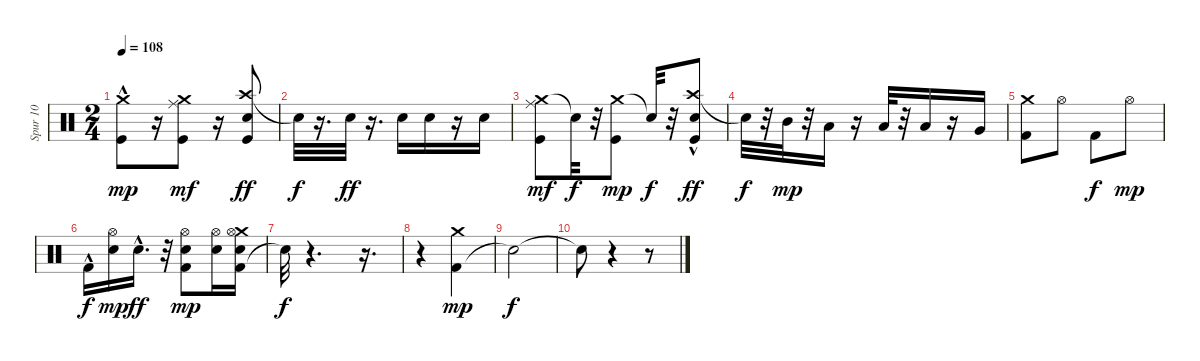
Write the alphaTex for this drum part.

\track ("Spur 10" "Spur 10") {instrument percussion}
\staff {score}
\articulation defaults
\ts (2 4)
\tempo 108
\clef neutral
\ks c
("Crash medium (hit)"{hac} "Kick (hit)").8{dy mp} r.16 ("Crash medium (hit)" "Ride (middle)" "Kick (hit)").8{dy mf} r.16 ("Crash high (hit)" "Electric Snare (hit)" "Kick (hit)").8{dy ff} |
"Snare (hit)"{t}.32{dy f} r.16{d} "Electric Snare (hit)".32{dy ff} r.16{d} "Electric Snare (hit)".16 "Electric Snare (hit)".16 r.16 "Electric Snare (hit)".16 |
("Crash medium (hit)" "Ride (middle)" "Kick (hit)").8{dy mf} "Snare (hit)"{t}.32{dy f} r.32 ("Crash medium (hit)" "Kick (hit)").8{dy mp} "Snare (hit)"{t}.32{dy f} r.32 ("Crash high (hit)" "Kick (hit)"{hac} "Electric Snare (hit)"{hac}).8{dy ff} |
"Snare (hit)"{t}.32{dy f} r.32 "Mid Tom (hit)".32{dy mp} r.32 "Low Tom (hit)".16 r.16 "Low Tom (hit)".32 r.32 "Low Tom (hit)".16 r.16 "Very Low Tom (hit)".16 |
("Crash medium (hit)" "Kick (hit) 2").8 "Hi-Hat (open)".8 "Kick (hit) 2".8{dy f} "Hi-Hat (open)".8{dy mp} |
"Kick (hit) 2"{hac}.16{dy f} ("Electric Snare (hit)" "Hi-Hat (open)").16{dy mp} "Electric Snare (hit)"{hac}.16{d dy ff} r.32 ("Electric Snare (hit)" "Kick (hit) 2" "Hi-Hat (open)").8{dy mp} ("Electric Snare (hit)" "Hi-Hat (open)").16 ("Kick (hit) 2" "Crash medium (hit)" "Electric Snare (hit)" "Hi-Hat (open)").16 |
"Snare (hit)"{t}.32{dy f} r.4{d} r.16{d} |
r.4 ("Kick (hit) 2" "Crash medium (hit)").4{dy mp} |
"Snare (hit)"{t}.2{dy f} |
"Snare (hit)"{t}.8 r.4 r.8
